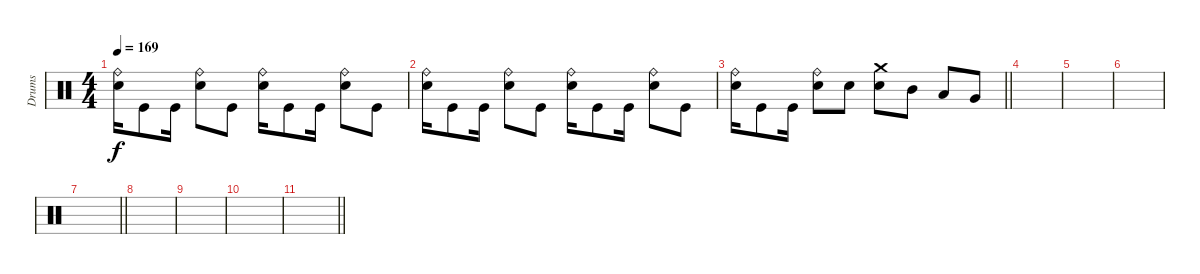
\track ("Drums" "Drums") {instrument percussion}
\staff
\articulation defaults
\ts (4 4)
\tempo 169
\clef neutral
\ks c
("Ride (bell)" "Electric Snare (hit)").16{dy f} "Kick (hit)".8 "Kick (hit)".16 ("Ride (bell)" "Electric Snare (hit)").8 "Kick (hit)".8 ("Ride (bell)" "Electric Snare (hit)").16 "Kick (hit)".8 "Kick (hit)".16 ("Ride (bell)" "Electric Snare (hit)").8 "Kick (hit)".8 |
("Ride (bell)" "Electric Snare (hit)").16 "Kick (hit)".8 "Kick (hit)".16 ("Ride (bell)" "Electric Snare (hit)").8 "Kick (hit)".8 ("Ride (bell)" "Electric Snare (hit)").16 "Kick (hit)".8 "Kick (hit)".16 ("Ride (bell)" "Electric Snare (hit)").8 "Kick (hit)".8 |
\barLineRight lightlight
("Ride (bell)" "Electric Snare (hit)").16 "Kick (hit)".8 "Kick (hit)".16 ("Ride (bell)" "Electric Snare (hit)").8 "Electric Snare (hit)".8 ("Crash medium (hit)" "Electric Snare (hit)").8 "Mid Tom (hit)".8 "Low Tom (hit)".8 "Very Low Tom (hit)".8 |
\section ("" "")
|
|
|
\barLineRight lightlight
|
|
|
|
\barLineRight lightlight
